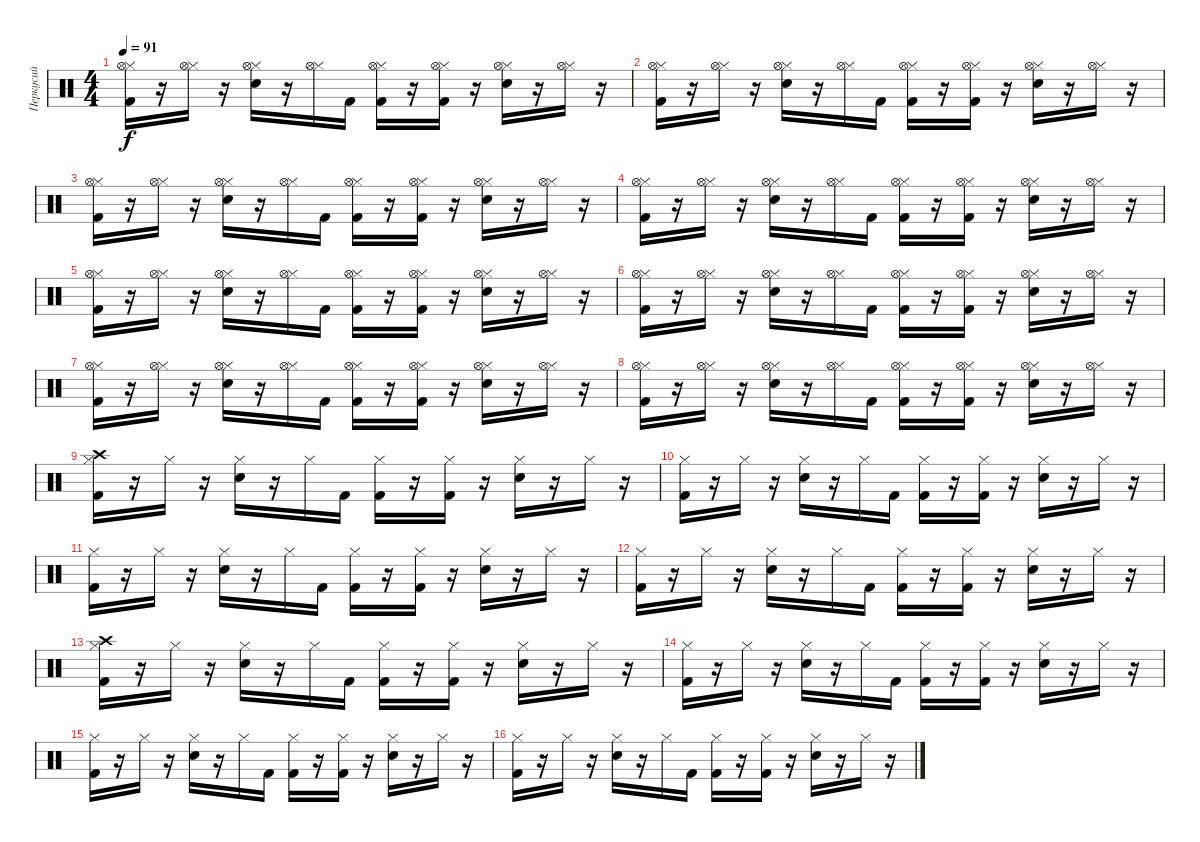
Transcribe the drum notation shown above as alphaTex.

\track ("Перкусий" "Перкусий") {instrument percussion}
\staff {score}
\articulation defaults
\ts (4 4)
\tempo 91
\clef neutral
\ks c
("Kick (hit) 2" "Hi-Hat (closed)" "Hi-Hat (open)").16{dy f} r.16 ("Hi-Hat (closed)" "Hi-Hat (open)").16 r.16 ("Electric Snare (hit)" "Hi-Hat (closed)" "Hi-Hat (open)").16 r.16 ("Hi-Hat (closed)" "Hi-Hat (open)").16 "Kick (hit) 2".16 ("Kick (hit) 2" "Hi-Hat (closed)" "Hi-Hat (open)").16 r.16 ("Kick (hit) 2" "Hi-Hat (closed)" "Hi-Hat (open)").16 r.16 ("Electric Snare (hit)" "Hi-Hat (closed)" "Hi-Hat (open)").16 r.16 ("Hi-Hat (closed)" "Hi-Hat (open)").16 r.16 |
("Kick (hit) 2" "Hi-Hat (closed)" "Hi-Hat (open)").16 r.16 ("Hi-Hat (closed)" "Hi-Hat (open)").16 r.16 ("Electric Snare (hit)" "Hi-Hat (closed)" "Hi-Hat (open)").16 r.16 ("Hi-Hat (closed)" "Hi-Hat (open)").16 "Kick (hit) 2".16 ("Kick (hit) 2" "Hi-Hat (closed)" "Hi-Hat (open)").16 r.16 ("Kick (hit) 2" "Hi-Hat (closed)" "Hi-Hat (open)").16 r.16 ("Electric Snare (hit)" "Hi-Hat (closed)" "Hi-Hat (open)").16 r.16 ("Hi-Hat (closed)" "Hi-Hat (open)").16 r.16 |
("Kick (hit) 2" "Hi-Hat (closed)" "Hi-Hat (open)").16 r.16 ("Hi-Hat (closed)" "Hi-Hat (open)").16 r.16 ("Electric Snare (hit)" "Hi-Hat (closed)" "Hi-Hat (open)").16 r.16 ("Hi-Hat (closed)" "Hi-Hat (open)").16 "Kick (hit) 2".16 ("Kick (hit) 2" "Hi-Hat (closed)" "Hi-Hat (open)").16 r.16 ("Kick (hit) 2" "Hi-Hat (closed)" "Hi-Hat (open)").16 r.16 ("Electric Snare (hit)" "Hi-Hat (closed)" "Hi-Hat (open)").16 r.16 ("Hi-Hat (closed)" "Hi-Hat (open)").16 r.16 |
("Kick (hit) 2" "Hi-Hat (closed)" "Hi-Hat (open)").16 r.16 ("Hi-Hat (closed)" "Hi-Hat (open)").16 r.16 ("Electric Snare (hit)" "Hi-Hat (closed)" "Hi-Hat (open)").16 r.16 ("Hi-Hat (closed)" "Hi-Hat (open)").16 "Kick (hit) 2".16 ("Kick (hit) 2" "Hi-Hat (closed)" "Hi-Hat (open)").16 r.16 ("Kick (hit) 2" "Hi-Hat (closed)" "Hi-Hat (open)").16 r.16 ("Electric Snare (hit)" "Hi-Hat (closed)" "Hi-Hat (open)").16 r.16 ("Hi-Hat (closed)" "Hi-Hat (open)").16 r.16 |
("Kick (hit) 2" "Hi-Hat (closed)" "Hi-Hat (open)").16 r.16 ("Hi-Hat (closed)" "Hi-Hat (open)").16 r.16 ("Electric Snare (hit)" "Hi-Hat (closed)" "Hi-Hat (open)").16 r.16 ("Hi-Hat (closed)" "Hi-Hat (open)").16 "Kick (hit) 2".16 ("Kick (hit) 2" "Hi-Hat (closed)" "Hi-Hat (open)").16 r.16 ("Kick (hit) 2" "Hi-Hat (closed)" "Hi-Hat (open)").16 r.16 ("Electric Snare (hit)" "Hi-Hat (closed)" "Hi-Hat (open)").16 r.16 ("Hi-Hat (closed)" "Hi-Hat (open)").16 r.16 |
("Kick (hit) 2" "Hi-Hat (closed)" "Hi-Hat (open)").16 r.16 ("Hi-Hat (closed)" "Hi-Hat (open)").16 r.16 ("Electric Snare (hit)" "Hi-Hat (closed)" "Hi-Hat (open)").16 r.16 ("Hi-Hat (closed)" "Hi-Hat (open)").16 "Kick (hit) 2".16 ("Kick (hit) 2" "Hi-Hat (closed)" "Hi-Hat (open)").16 r.16 ("Kick (hit) 2" "Hi-Hat (closed)" "Hi-Hat (open)").16 r.16 ("Electric Snare (hit)" "Hi-Hat (closed)" "Hi-Hat (open)").16 r.16 ("Hi-Hat (closed)" "Hi-Hat (open)").16 r.16 |
("Kick (hit) 2" "Hi-Hat (closed)" "Hi-Hat (open)").16 r.16 ("Hi-Hat (closed)" "Hi-Hat (open)").16 r.16 ("Electric Snare (hit)" "Hi-Hat (closed)" "Hi-Hat (open)").16 r.16 ("Hi-Hat (closed)" "Hi-Hat (open)").16 "Kick (hit) 2".16 ("Kick (hit) 2" "Hi-Hat (closed)" "Hi-Hat (open)").16 r.16 ("Kick (hit) 2" "Hi-Hat (closed)" "Hi-Hat (open)").16 r.16 ("Electric Snare (hit)" "Hi-Hat (closed)" "Hi-Hat (open)").16 r.16 ("Hi-Hat (closed)" "Hi-Hat (open)").16 r.16 |
("Kick (hit) 2" "Hi-Hat (closed)" "Hi-Hat (open)").16 r.16 ("Hi-Hat (closed)" "Hi-Hat (open)").16 r.16 ("Electric Snare (hit)" "Hi-Hat (closed)" "Hi-Hat (open)").16 r.16 ("Hi-Hat (closed)" "Hi-Hat (open)").16 "Kick (hit) 2".16 ("Kick (hit) 2" "Hi-Hat (closed)" "Hi-Hat (open)").16 r.16 ("Kick (hit) 2" "Hi-Hat (closed)" "Hi-Hat (open)").16 r.16 ("Electric Snare (hit)" "Hi-Hat (closed)" "Hi-Hat (open)").16 r.16 ("Hi-Hat (closed)" "Hi-Hat (open)").16 r.16 |
("Kick (hit) 2" "Hi-Hat (closed)" "Crash high (hit)").16 r.16 "Hi-Hat (closed)".16 r.16 ("Electric Snare (hit)" "Hi-Hat (closed)").16 r.16 "Hi-Hat (closed)".16 "Kick (hit) 2".16 ("Kick (hit) 2" "Hi-Hat (closed)").16 r.16 ("Kick (hit) 2" "Hi-Hat (closed)").16 r.16 ("Electric Snare (hit)" "Hi-Hat (closed)").16 r.16 "Hi-Hat (closed)".16 r.16 |
("Kick (hit) 2" "Hi-Hat (closed)").16 r.16 "Hi-Hat (closed)".16 r.16 ("Electric Snare (hit)" "Hi-Hat (closed)").16 r.16 "Hi-Hat (closed)".16 "Kick (hit) 2".16 ("Kick (hit) 2" "Hi-Hat (closed)").16 r.16 ("Kick (hit) 2" "Hi-Hat (closed)").16 r.16 ("Electric Snare (hit)" "Hi-Hat (closed)").16 r.16 "Hi-Hat (closed)".16 r.16 |
("Kick (hit) 2" "Hi-Hat (closed)").16 r.16 "Hi-Hat (closed)".16 r.16 ("Electric Snare (hit)" "Hi-Hat (closed)").16 r.16 "Hi-Hat (closed)".16 "Kick (hit) 2".16 ("Kick (hit) 2" "Hi-Hat (closed)").16 r.16 ("Kick (hit) 2" "Hi-Hat (closed)").16 r.16 ("Electric Snare (hit)" "Hi-Hat (closed)").16 r.16 "Hi-Hat (closed)".16 r.16 |
("Kick (hit) 2" "Hi-Hat (closed)").16 r.16 "Hi-Hat (closed)".16 r.16 ("Electric Snare (hit)" "Hi-Hat (closed)").16 r.16 "Hi-Hat (closed)".16 "Kick (hit) 2".16 ("Kick (hit) 2" "Hi-Hat (closed)").16 r.16 ("Kick (hit) 2" "Hi-Hat (closed)").16 r.16 ("Electric Snare (hit)" "Hi-Hat (closed)").16 r.16 "Hi-Hat (closed)".16 r.16 |
("Kick (hit) 2" "Hi-Hat (closed)" "Crash high (hit)").16 r.16 "Hi-Hat (closed)".16 r.16 ("Electric Snare (hit)" "Hi-Hat (closed)").16 r.16 "Hi-Hat (closed)".16 "Kick (hit) 2".16 ("Kick (hit) 2" "Hi-Hat (closed)").16 r.16 ("Kick (hit) 2" "Hi-Hat (closed)").16 r.16 ("Electric Snare (hit)" "Hi-Hat (closed)").16 r.16 "Hi-Hat (closed)".16 r.16 |
("Kick (hit) 2" "Hi-Hat (closed)").16 r.16 "Hi-Hat (closed)".16 r.16 ("Electric Snare (hit)" "Hi-Hat (closed)").16 r.16 "Hi-Hat (closed)".16 "Kick (hit) 2".16 ("Kick (hit) 2" "Hi-Hat (closed)").16 r.16 ("Kick (hit) 2" "Hi-Hat (closed)").16 r.16 ("Electric Snare (hit)" "Hi-Hat (closed)").16 r.16 "Hi-Hat (closed)".16 r.16 |
("Kick (hit) 2" "Hi-Hat (closed)").16 r.16 "Hi-Hat (closed)".16 r.16 ("Electric Snare (hit)" "Hi-Hat (closed)").16 r.16 "Hi-Hat (closed)".16 "Kick (hit) 2".16 ("Kick (hit) 2" "Hi-Hat (closed)").16 r.16 ("Kick (hit) 2" "Hi-Hat (closed)").16 r.16 ("Electric Snare (hit)" "Hi-Hat (closed)").16 r.16 "Hi-Hat (closed)".16 r.16 |
("Kick (hit) 2" "Hi-Hat (closed)").16 r.16 "Hi-Hat (closed)".16 r.16 ("Electric Snare (hit)" "Hi-Hat (closed)").16 r.16 "Hi-Hat (closed)".16 "Kick (hit) 2".16 ("Kick (hit) 2" "Hi-Hat (closed)").16 r.16 ("Kick (hit) 2" "Hi-Hat (closed)").16 r.16 ("Electric Snare (hit)" "Hi-Hat (closed)").16 r.16 "Hi-Hat (closed)".16 r.16
